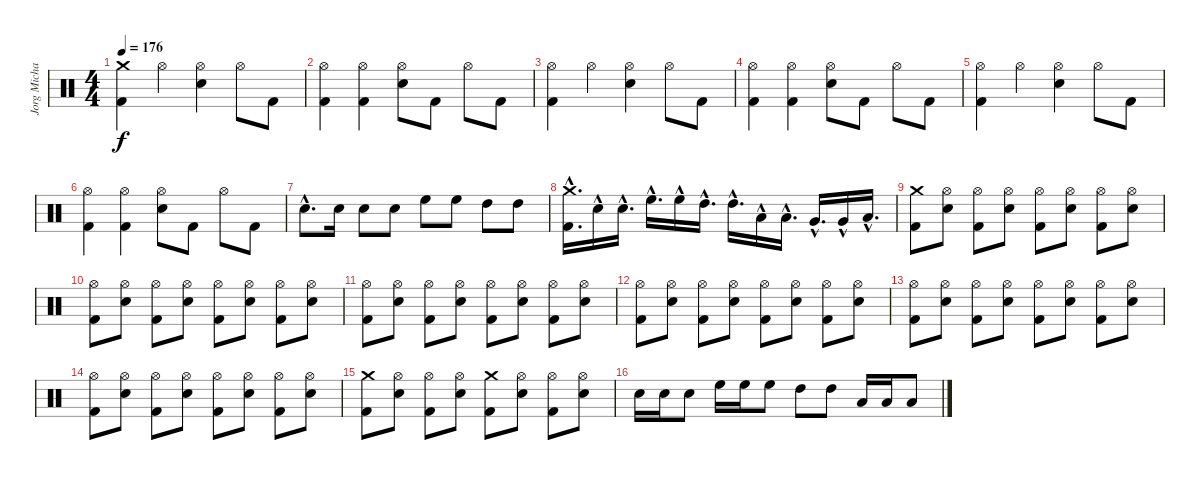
\track ("Jorg Michael" "Jorg Micha") {instrument percussion}
\staff {score}
\articulation defaults
\ts (4 4)
\tempo 176
\clef neutral
\ks c
("Kick (hit) 2" "Crash medium (hit)").4{dy f} "Hi-Hat (open)".4 ("Snare (hit) 2" "Hi-Hat (open)").4 "Hi-Hat (open)".8 "Kick (hit) 2".8 |
("Hi-Hat (open)" "Kick (hit) 2").4 ("Hi-Hat (open)" "Kick (hit) 2").4 ("Hi-Hat (open)" "Snare (hit) 2").8 "Kick (hit) 2".8 "Hi-Hat (open)".8 "Kick (hit) 2".8 |
("Hi-Hat (open)" "Kick (hit) 2").4 "Hi-Hat (open)".4 ("Snare (hit) 2" "Hi-Hat (open)").4 "Hi-Hat (open)".8 "Kick (hit) 2".8 |
("Hi-Hat (open)" "Kick (hit) 2").4 ("Hi-Hat (open)" "Kick (hit) 2").4 ("Hi-Hat (open)" "Snare (hit) 2").8 "Kick (hit) 2".8 "Hi-Hat (open)".8 "Kick (hit) 2".8 |
("Hi-Hat (open)" "Kick (hit) 2").4 "Hi-Hat (open)".4 ("Snare (hit) 2" "Hi-Hat (open)").4 "Hi-Hat (open)".8 "Kick (hit) 2".8 |
("Hi-Hat (open)" "Kick (hit) 2").4 ("Hi-Hat (open)" "Kick (hit) 2").4 ("Hi-Hat (open)" "Snare (hit) 2").8 "Kick (hit) 2".8 "Hi-Hat (open)".8 "Kick (hit) 2".8 |
"Snare (hit) 2"{hac}.8{d} "Snare (hit) 2".16 "Snare (hit) 2".8 "Snare (hit) 2".8 "High Floor Tom (hit)".8 "High Floor Tom (hit)".8 "High Tom (hit)".8 "High Tom (hit)".8 |
("Kick (hit) 2" "Crash medium (hit)"{hac}).16{d} "Snare (hit) 2"{hac}.16 "Snare (hit) 2"{hac}.16{d} "High Floor Tom (hit)"{hac}.16{d} "High Floor Tom (hit)"{hac}.16 "High Tom (hit)"{hac}.16{d} "High Tom (hit)"{hac}.16{d} "Low Tom (hit)"{hac}.16 "Low Tom (hit)"{hac}.16{d} "Very Low Tom (hit)"{hac}.16{d} "Very Low Tom (hit)"{hac}.16 "Low Floor Tom (hit)"{hac}.16{d} |
("Crash medium (hit)" "Kick (hit) 2").8 ("Snare (hit) 2" "Hi-Hat (open)").8 ("Kick (hit) 2" "Hi-Hat (open)").8 ("Snare (hit) 2" "Hi-Hat (open)").8 ("Kick (hit) 2" "Hi-Hat (open)").8 ("Snare (hit) 2" "Hi-Hat (open)").8 ("Kick (hit) 2" "Hi-Hat (open)").8 ("Snare (hit) 2" "Hi-Hat (open)").8 |
("Hi-Hat (open)" "Kick (hit) 2").8 ("Snare (hit) 2" "Hi-Hat (open)").8 ("Kick (hit) 2" "Hi-Hat (open)").8 ("Snare (hit) 2" "Hi-Hat (open)").8 ("Kick (hit) 2" "Hi-Hat (open)").8 ("Snare (hit) 2" "Hi-Hat (open)").8 ("Kick (hit) 2" "Hi-Hat (open)").8 ("Snare (hit) 2" "Hi-Hat (open)").8 |
("Hi-Hat (open)" "Kick (hit) 2").8 ("Snare (hit) 2" "Hi-Hat (open)").8 ("Kick (hit) 2" "Hi-Hat (open)").8 ("Snare (hit) 2" "Hi-Hat (open)").8 ("Kick (hit) 2" "Hi-Hat (open)").8 ("Snare (hit) 2" "Hi-Hat (open)").8 ("Kick (hit) 2" "Hi-Hat (open)").8 ("Snare (hit) 2" "Hi-Hat (open)").8 |
("Hi-Hat (open)" "Kick (hit) 2").8 ("Snare (hit) 2" "Hi-Hat (open)").8 ("Kick (hit) 2" "Hi-Hat (open)").8 ("Snare (hit) 2" "Hi-Hat (open)").8 ("Kick (hit) 2" "Hi-Hat (open)").8 ("Snare (hit) 2" "Hi-Hat (open)").8 ("Kick (hit) 2" "Hi-Hat (open)").8 ("Snare (hit) 2" "Hi-Hat (open)").8 |
("Hi-Hat (open)" "Kick (hit) 2").8 ("Snare (hit) 2" "Hi-Hat (open)").8 ("Kick (hit) 2" "Hi-Hat (open)").8 ("Snare (hit) 2" "Hi-Hat (open)").8 ("Kick (hit) 2" "Hi-Hat (open)").8 ("Snare (hit) 2" "Hi-Hat (open)").8 ("Kick (hit) 2" "Hi-Hat (open)").8 ("Snare (hit) 2" "Hi-Hat (open)").8 |
("Hi-Hat (open)" "Kick (hit) 2").8 ("Snare (hit) 2" "Hi-Hat (open)").8 ("Kick (hit) 2" "Hi-Hat (open)").8 ("Snare (hit) 2" "Hi-Hat (open)").8 ("Kick (hit) 2" "Hi-Hat (open)").8 ("Snare (hit) 2" "Hi-Hat (open)").8 ("Kick (hit) 2" "Hi-Hat (open)").8 ("Snare (hit) 2" "Hi-Hat (open)").8 |
("Crash medium (hit)" "Kick (hit) 2").8 ("Snare (hit) 2" "Hi-Hat (open)").8 ("Kick (hit) 2" "Hi-Hat (open)").8 ("Snare (hit) 2" "Hi-Hat (open)").8 ("Crash medium (hit)" "Kick (hit) 2").8 ("Snare (hit) 2" "Hi-Hat (open)").8 ("Kick (hit) 2" "Hi-Hat (open)").8 ("Snare (hit) 2" "Hi-Hat (open)").8 |
"Snare (hit) 2".16 "Snare (hit) 2".16 "Snare (hit) 2".8 "High Floor Tom (hit)".16 "High Floor Tom (hit)".16 "High Floor Tom (hit)".8 "High Tom (hit)".8 "High Tom (hit)".8 "Low Tom (hit)".16 "Low Tom (hit)".16 "Low Tom (hit)".8
